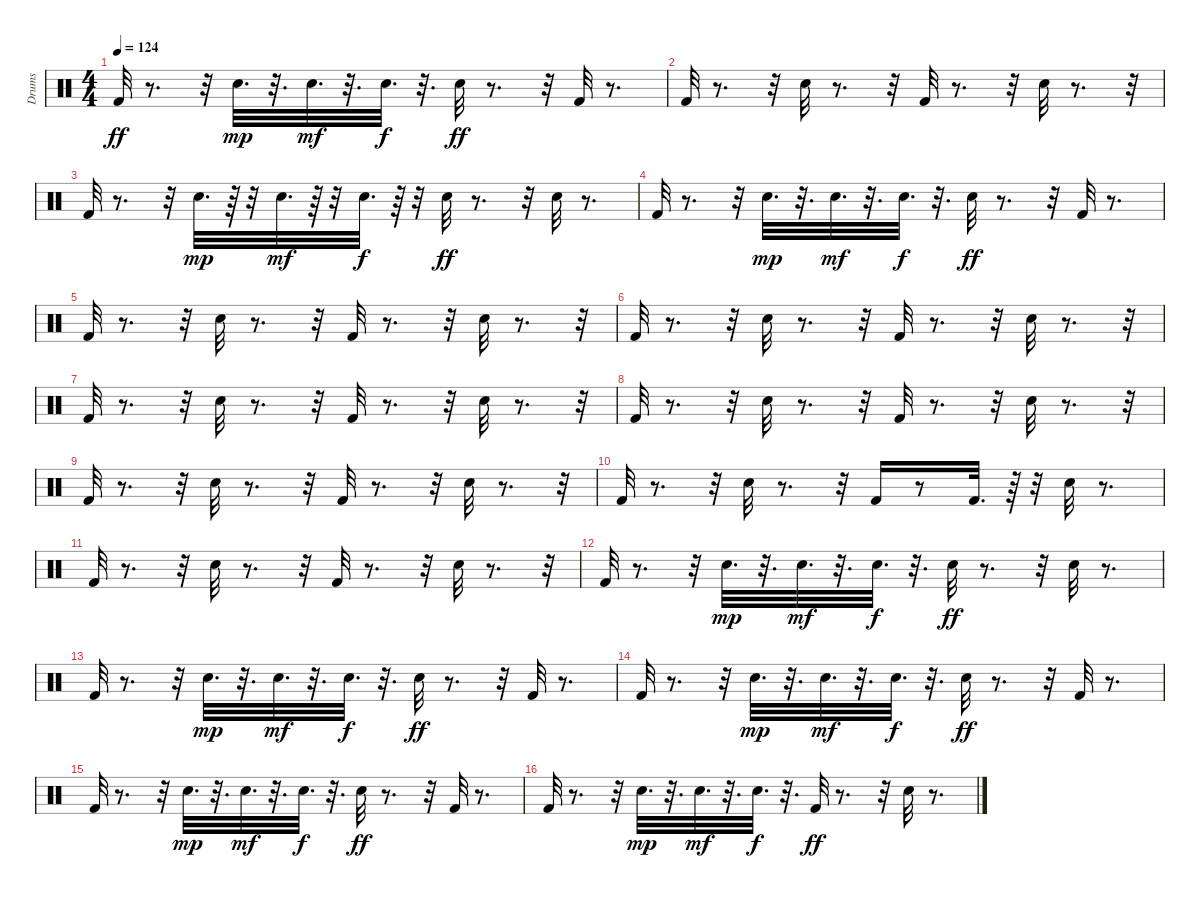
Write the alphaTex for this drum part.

\track ("Drums" "Drums") {instrument percussion}
\staff {score}
\articulation defaults
\ts (4 4)
\tempo 124
\clef neutral
\ks c "Kick (hit) 2".32{dy ff}
r.8{d} r.32 "Snare (hit) 2".32{d dy mp} r.32{d} "Snare (hit) 2".32{d dy mf} r.32{d} "Snare (hit) 2".32{d dy f} r.32{d} "Snare (hit) 2".32{dy ff} r.8{d} r.32 "Kick (hit) 2".32 r.8{d} |
"Kick (hit) 2".32 r.8{d} r.32 "Snare (hit) 2".32 r.8{d} r.32 "Kick (hit) 2".32 r.8{d} r.32 "Snare (hit) 2".32 r.8{d} r.32 |
"Kick (hit) 2".32 r.8{d} r.32 "Snare (hit) 2".32{d dy mp} r.64 r.32 "Snare (hit) 2".32{d dy mf} r.64 r.32 "Snare (hit) 2".32{d dy f} r.64 r.32 "Snare (hit) 2".32{dy ff} r.8{d} r.32 "Snare (hit) 2".32 r.8{d} |
"Kick (hit) 2".32 r.8{d} r.32 "Snare (hit) 2".32{d dy mp} r.32{d} "Snare (hit) 2".32{d dy mf} r.32{d} "Snare (hit) 2".32{d dy f} r.32{d} "Snare (hit) 2".32{dy ff} r.8{d} r.32 "Kick (hit) 2".32 r.8{d} |
"Kick (hit) 2".32 r.8{d} r.32 "Snare (hit) 2".32 r.8{d} r.32 "Kick (hit) 2".32 r.8{d} r.32 "Snare (hit) 2".32 r.8{d} r.32 |
"Kick (hit) 2".32 r.8{d} r.32 "Snare (hit) 2".32 r.8{d} r.32 "Kick (hit) 2".32 r.8{d} r.32 "Snare (hit) 2".32 r.8{d} r.32 |
"Kick (hit) 2".32 r.8{d} r.32 "Snare (hit) 2".32 r.8{d} r.32 "Kick (hit) 2".32 r.8{d} r.32 "Snare (hit) 2".32 r.8{d} r.32 |
"Kick (hit) 2".32 r.8{d} r.32 "Snare (hit) 2".32 r.8{d} r.32 "Kick (hit) 2".32 r.8{d} r.32 "Snare (hit) 2".32 r.8{d} r.32 |
"Kick (hit) 2".32 r.8{d} r.32 "Snare (hit) 2".32 r.8{d} r.32 "Kick (hit) 2".32 r.8{d} r.32 "Snare (hit) 2".32 r.8{d} r.32 |
"Kick (hit) 2".32 r.8{d} r.32 "Snare (hit) 2".32 r.8{d} r.32 "Kick (hit) 2".16 r.8 "Kick (hit) 2".32{d} r.64 r.32 "Snare (hit) 2".32 r.8{d} |
"Kick (hit) 2".32 r.8{d} r.32 "Snare (hit) 2".32 r.8{d} r.32 "Kick (hit) 2".32 r.8{d} r.32 "Snare (hit) 2".32 r.8{d} r.32 |
"Kick (hit) 2".32 r.8{d} r.32 "Snare (hit) 2".32{d dy mp} r.32{d} "Snare (hit) 2".32{d dy mf} r.32{d} "Snare (hit) 2".32{d dy f} r.32{d} "Snare (hit) 2".32{dy ff} r.8{d} r.32 "Snare (hit) 2".32 r.8{d} |
"Kick (hit) 2".32 r.8{d} r.32 "Snare (hit) 2".32{d dy mp} r.32{d} "Snare (hit) 2".32{d dy mf} r.32{d} "Snare (hit) 2".32{d dy f} r.32{d} "Snare (hit) 2".32{dy ff} r.8{d} r.32 "Kick (hit) 2".32 r.8{d} |
"Kick (hit) 2".32 r.8{d} r.32 "Snare (hit) 2".32{d dy mp} r.32{d} "Snare (hit) 2".32{d dy mf} r.32{d} "Snare (hit) 2".32{d dy f} r.32{d} "Snare (hit) 2".32{dy ff} r.8{d} r.32 "Kick (hit) 2".32 r.8{d} |
"Kick (hit) 2".32 r.8{d} r.32 "Snare (hit) 2".32{d dy mp} r.32{d} "Snare (hit) 2".32{d dy mf} r.32{d} "Snare (hit) 2".32{d dy f} r.32{d} "Snare (hit) 2".32{dy ff} r.8{d} r.32 "Kick (hit) 2".32 r.8{d} |
"Kick (hit) 2".32 r.8{d} r.32 "Snare (hit) 2".32{d dy mp} r.32{d} "Snare (hit) 2".32{d dy mf} r.32{d} "Snare (hit) 2".32{d dy f} r.32{d} "Kick (hit) 2".32{dy ff} r.8{d} r.32 "Snare (hit) 2".32 r.8{d}
